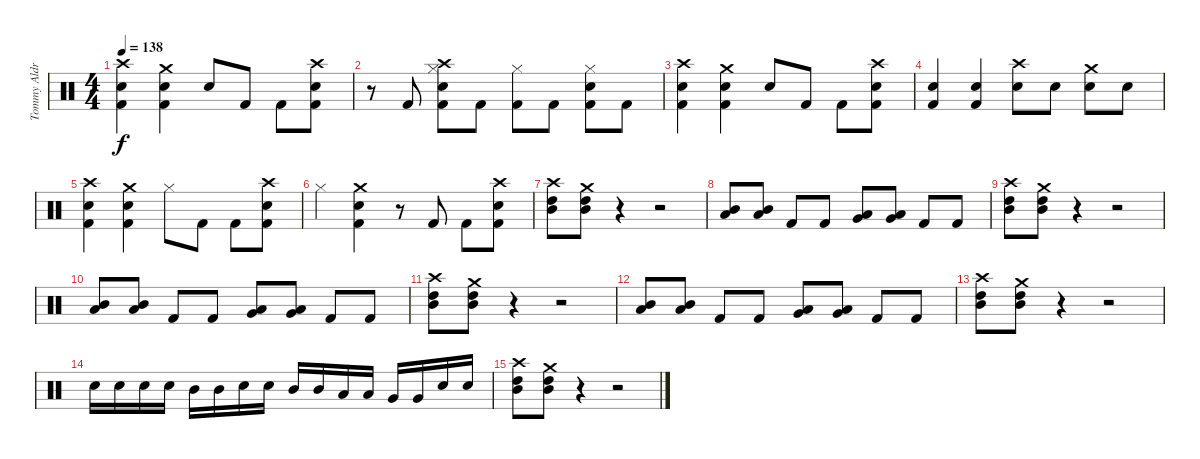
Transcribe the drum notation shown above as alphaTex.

\track ("Tommy Aldridge" "Tommy Aldr") {instrument percussion}
\staff {score}
\articulation defaults
\ts (4 4)
\tempo 138
\clef neutral
\ks c
("Crash high (hit)" "Snare (hit) 2" "Kick (hit) 2").4{txt "" dy f} ("Crash medium (hit)" "Snare (hit) 2" "Kick (hit) 2").4 "Snare (hit) 2".8 "Kick (hit) 2".8 "Kick (hit) 2".8 ("Crash high (hit)" "Snare (hit) 2" "Kick (hit) 2").8 |
r.8 "Kick (hit) 2".8 ("Crash high (hit)" "Snare (hit) 2" "Hi-Hat (closed)" "Kick (hit) 2").8 "Kick (hit) 2".8 ("Hi-Hat (closed)" "Kick (hit) 2").8 "Kick (hit) 2".8 ("Snare (hit) 2" "Hi-Hat (closed)" "Kick (hit) 2").8 "Kick (hit) 2".8 |
("Crash high (hit)" "Snare (hit) 2" "Kick (hit) 2").4 ("Crash medium (hit)" "Snare (hit) 2" "Kick (hit) 2").4 "Snare (hit) 2".8 "Kick (hit) 2".8 "Kick (hit) 2".8 ("Crash high (hit)" "Snare (hit) 2" "Kick (hit) 2").8 |
("Snare (hit) 2" "Kick (hit) 2").4 ("Snare (hit) 2" "Kick (hit) 2").4 ("Crash high (hit)" "Snare (hit) 2").8 "Snare (hit) 2".8 ("Crash medium (hit)" "Snare (hit) 2").8 "Snare (hit) 2".8 |
("Crash high (hit)" "Snare (hit) 2" "Kick (hit) 2").4 ("Crash medium (hit)" "Snare (hit) 2" "Kick (hit) 2").4 "Hi-Hat (closed)".8 "Kick (hit) 2".8 "Kick (hit) 2".8 ("Crash high (hit)" "Snare (hit) 2" "Kick (hit) 2").8 |
"Hi-Hat (closed)".4 ("Crash medium (hit)" "Snare (hit) 2" "Kick (hit) 2").4 r.8 "Kick (hit) 2".8 "Kick (hit) 2".8 ("Crash high (hit)" "Snare (hit) 2" "Kick (hit) 2").8 |
("Crash high (hit)" "High Tom (hit)" "Mid Tom (hit)").8 ("Crash medium (hit)" "High Tom (hit)" "Mid Tom (hit)").8 r.4 r.2 |
("Mid Tom (hit)" "Low Tom (hit)").8 ("Mid Tom (hit)" "Low Tom (hit)").8 "Kick (hit) 2".8 "Kick (hit) 2".8 ("Low Tom (hit)" "Very Low Tom (hit)").8 ("Low Tom (hit)" "Very Low Tom (hit)").8 "Kick (hit) 2".8 "Kick (hit) 2".8 |
("Crash high (hit)" "High Tom (hit)" "Mid Tom (hit)").8 ("Crash medium (hit)" "High Tom (hit)" "Mid Tom (hit)").8 r.4 r.2 |
("Mid Tom (hit)" "Low Tom (hit)").8 ("Mid Tom (hit)" "Low Tom (hit)").8 "Kick (hit) 2".8 "Kick (hit) 2".8 ("Low Tom (hit)" "Very Low Tom (hit)").8 ("Low Tom (hit)" "Very Low Tom (hit)").8 "Kick (hit) 2".8 "Kick (hit) 2".8 |
("Crash high (hit)" "High Tom (hit)" "Mid Tom (hit)").8 ("Crash medium (hit)" "High Tom (hit)" "Mid Tom (hit)").8 r.4 r.2 |
("Mid Tom (hit)" "Low Tom (hit)").8 ("Mid Tom (hit)" "Low Tom (hit)").8 "Kick (hit) 2".8 "Kick (hit) 2".8 ("Low Tom (hit)" "Very Low Tom (hit)").8 ("Low Tom (hit)" "Very Low Tom (hit)").8 "Kick (hit) 2".8 "Kick (hit) 2".8 |
("Crash high (hit)" "High Tom (hit)" "Mid Tom (hit)").8 ("Crash medium (hit)" "High Tom (hit)" "Mid Tom (hit)").8 r.4 r.2 |
"Snare (hit) 2".16 "Snare (hit) 2".16 "Snare (hit) 2".16 "Snare (hit) 2".16 "Mid Tom (hit)".16 "Mid Tom (hit)".16 "Snare (hit) 2".16 "Snare (hit) 2".16 "Mid Tom (hit)".16 "Mid Tom (hit)".16 "Low Tom (hit)".16 "Low Tom (hit)".16 "Very Low Tom (hit)".16 "Very Low Tom (hit)".16 "Snare (hit) 2".16 "Snare (hit) 2".16 |
("Crash high (hit)" "High Tom (hit)" "Mid Tom (hit)").8 ("Crash medium (hit)" "High Tom (hit)" "Mid Tom (hit)").8 r.4 r.2
